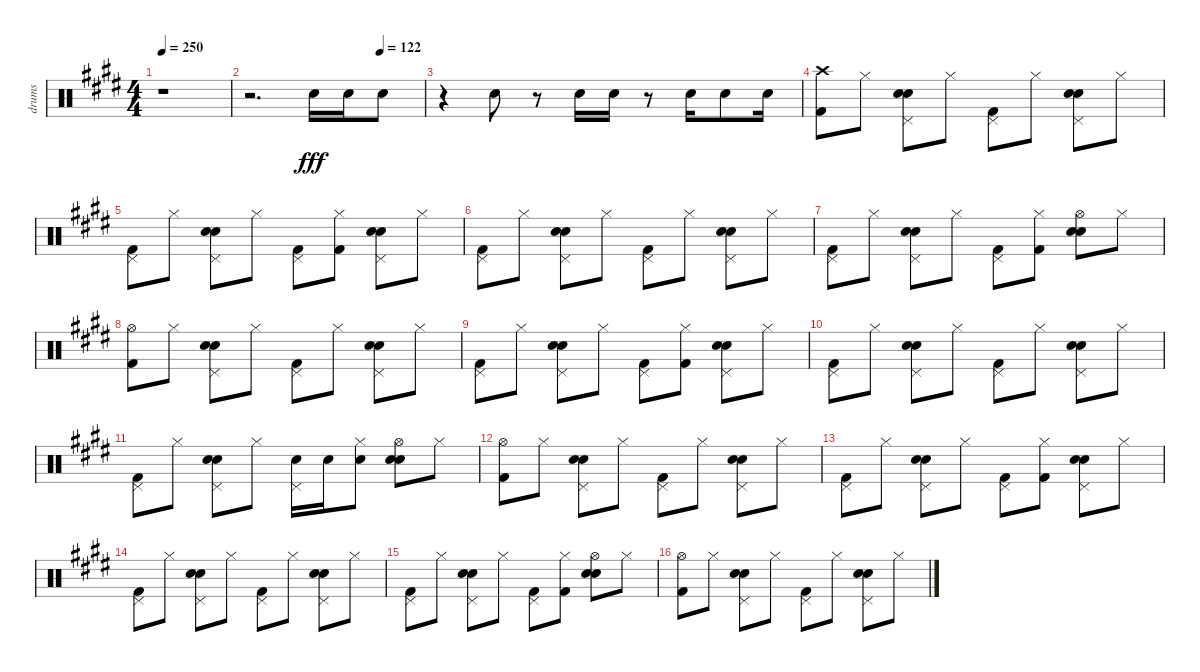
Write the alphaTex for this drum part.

\track ("drums" "drums") {instrument percussion}
\staff {score}
\articulation defaults
\ts (4 4)
\tempo 250
\clef neutral
\ks e
r.1{dy fff} |
\tempo (122 0.75)
r.2{d} "Snare (hit) 2".16 "Snare (hit) 2".16 "Snare (hit) 2".8 |
r.4 "Snare (hit) 2".8 r.8 "Snare (hit) 2".16 "Snare (hit) 2".16 r.8 "Snare (hit) 2".16 "Snare (hit) 2".8 "Snare (hit) 2".16 |
("Crash high (hit)" "Kick (hit) 2").8 "Hi-Hat (closed)".8 ("Hand Clap (hit)" "Pedal Hi-Hat (hit)" "Snare (hit) 2").8 "Hi-Hat (closed)".8 ("Pedal Hi-Hat (hit)" "Kick (hit) 2").8 "Hi-Hat (closed)".8 ("Hand Clap (hit)" "Pedal Hi-Hat (hit)" "Snare (hit) 2").8 "Hi-Hat (closed)".8 |
("Pedal Hi-Hat (hit)" "Kick (hit) 2").8 "Hi-Hat (closed)".8 ("Hand Clap (hit)" "Pedal Hi-Hat (hit)" "Snare (hit) 2").8 "Hi-Hat (closed)".8 ("Pedal Hi-Hat (hit)" "Kick (hit) 2").8 ("Hi-Hat (closed)" "Kick (hit) 2").8 ("Hand Clap (hit)" "Pedal Hi-Hat (hit)" "Snare (hit) 2").8 "Hi-Hat (closed)".8 |
("Pedal Hi-Hat (hit)" "Kick (hit) 2").8 "Hi-Hat (closed)".8 ("Hand Clap (hit)" "Pedal Hi-Hat (hit)" "Snare (hit) 2").8 "Hi-Hat (closed)".8 ("Pedal Hi-Hat (hit)" "Kick (hit) 2").8 "Hi-Hat (closed)".8 ("Hand Clap (hit)" "Pedal Hi-Hat (hit)" "Snare (hit) 2").8 "Hi-Hat (closed)".8 |
("Pedal Hi-Hat (hit)" "Kick (hit) 2").8 "Hi-Hat (closed)".8 ("Hand Clap (hit)" "Pedal Hi-Hat (hit)" "Snare (hit) 2").8 "Hi-Hat (closed)".8 ("Kick (hit) 2" "Pedal Hi-Hat (hit)").8 ("Kick (hit) 2" "Hi-Hat (closed)").8 ("Hand Clap (hit)" "Hi-Hat (open)" "Snare (hit) 2").8 "Hi-Hat (closed)".8 |
("Hi-Hat (open)" "Kick (hit) 2").8 "Hi-Hat (closed)".8 ("Hand Clap (hit)" "Pedal Hi-Hat (hit)" "Snare (hit) 2").8 "Hi-Hat (closed)".8 ("Pedal Hi-Hat (hit)" "Kick (hit) 2").8 "Hi-Hat (closed)".8 ("Hand Clap (hit)" "Pedal Hi-Hat (hit)" "Snare (hit) 2").8 "Hi-Hat (closed)".8 |
("Pedal Hi-Hat (hit)" "Kick (hit) 2").8 "Hi-Hat (closed)".8 ("Hand Clap (hit)" "Pedal Hi-Hat (hit)" "Snare (hit) 2").8 "Hi-Hat (closed)".8 ("Pedal Hi-Hat (hit)" "Kick (hit) 2").8 ("Hi-Hat (closed)" "Kick (hit) 2").8 ("Hand Clap (hit)" "Pedal Hi-Hat (hit)" "Snare (hit) 2").8 "Hi-Hat (closed)".8 |
("Pedal Hi-Hat (hit)" "Kick (hit) 2").8 "Hi-Hat (closed)".8 ("Hand Clap (hit)" "Pedal Hi-Hat (hit)" "Snare (hit) 2").8 "Hi-Hat (closed)".8 ("Pedal Hi-Hat (hit)" "Kick (hit) 2").8 "Hi-Hat (closed)".8 ("Hand Clap (hit)" "Pedal Hi-Hat (hit)" "Snare (hit) 2").8 "Hi-Hat (closed)".8 |
("Pedal Hi-Hat (hit)" "Kick (hit) 2").8 "Hi-Hat (closed)".8 ("Hand Clap (hit)" "Pedal Hi-Hat (hit)" "Snare (hit) 2").8 "Hi-Hat (closed)".8 ("Snare (hit) 2" "Pedal Hi-Hat (hit)").16 "Snare (hit) 2".16 ("Snare (hit) 2" "Hi-Hat (closed)").8 ("Hand Clap (hit)" "Hi-Hat (open)" "Snare (hit) 2").8 "Hi-Hat (closed)".8 |
("Hi-Hat (open)" "Kick (hit) 2").8 "Hi-Hat (closed)".8 ("Hand Clap (hit)" "Pedal Hi-Hat (hit)" "Snare (hit) 2").8 "Hi-Hat (closed)".8 ("Pedal Hi-Hat (hit)" "Kick (hit) 2").8 "Hi-Hat (closed)".8 ("Hand Clap (hit)" "Pedal Hi-Hat (hit)" "Snare (hit) 2").8 "Hi-Hat (closed)".8 |
("Pedal Hi-Hat (hit)" "Kick (hit) 2").8 "Hi-Hat (closed)".8 ("Hand Clap (hit)" "Pedal Hi-Hat (hit)" "Snare (hit) 2").8 "Hi-Hat (closed)".8 ("Pedal Hi-Hat (hit)" "Kick (hit) 2").8 ("Hi-Hat (closed)" "Kick (hit) 2").8 ("Hand Clap (hit)" "Pedal Hi-Hat (hit)" "Snare (hit) 2").8 "Hi-Hat (closed)".8 |
("Pedal Hi-Hat (hit)" "Kick (hit) 2").8 "Hi-Hat (closed)".8 ("Hand Clap (hit)" "Pedal Hi-Hat (hit)" "Snare (hit) 2").8 "Hi-Hat (closed)".8 ("Pedal Hi-Hat (hit)" "Kick (hit) 2").8 "Hi-Hat (closed)".8 ("Hand Clap (hit)" "Pedal Hi-Hat (hit)" "Snare (hit) 2").8 "Hi-Hat (closed)".8 |
("Pedal Hi-Hat (hit)" "Kick (hit) 2").8 "Hi-Hat (closed)".8 ("Hand Clap (hit)" "Pedal Hi-Hat (hit)" "Snare (hit) 2").8 "Hi-Hat (closed)".8 ("Kick (hit) 2" "Pedal Hi-Hat (hit)").8 ("Kick (hit) 2" "Hi-Hat (closed)").8 ("Hand Clap (hit)" "Hi-Hat (open)" "Snare (hit) 2").8 "Hi-Hat (closed)".8 |
("Hi-Hat (open)" "Kick (hit) 2").8 "Hi-Hat (closed)".8 ("Hand Clap (hit)" "Pedal Hi-Hat (hit)" "Snare (hit) 2").8 "Hi-Hat (closed)".8 ("Pedal Hi-Hat (hit)" "Kick (hit) 2").8 "Hi-Hat (closed)".8 ("Hand Clap (hit)" "Pedal Hi-Hat (hit)" "Snare (hit) 2").8 "Hi-Hat (closed)".8
